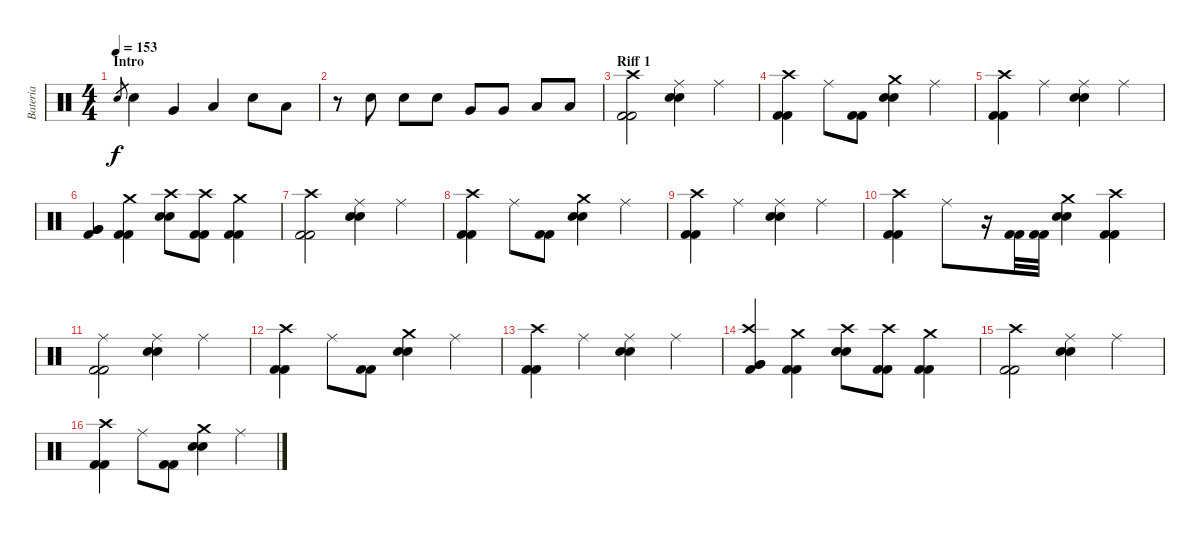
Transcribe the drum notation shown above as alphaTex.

\track ("Bateria" "Bateria") {instrument percussion}
\staff {score}
\articulation defaults
\ts (4 4)
\section ("" "Intro")
\tempo 153
\clef neutral
\ks c "Snare (hit) 2".8{gr dy f} "Snare (hit) 2".4 "Very Low Tom (hit)".4 "Low Floor Tom (hit)".4 "Snare (hit) 2".8 "Low Floor Tom (hit)".8
|
r.8 "Snare (hit) 2".8 "Snare (hit) 2".8 "Snare (hit) 2".8 "Very Low Tom (hit)".8 "Very Low Tom (hit)".8 "Low Floor Tom (hit)".8 "Low Floor Tom (hit)".8 |
\section ("" "Riff 1")
("Crash high (hit)" "Kick (hit) 2" "Kick (hit) 2").2 ("Ride (middle)" "Snare (hit) 2" "Snare (hit) 2").4 "Ride (middle)".4 |
("Crash high (hit)" "Kick (hit) 2" "Kick (hit) 2").4 "Ride (middle)".8 ("Kick (hit) 2" "Kick (hit) 2").8 ("Crash medium (hit)" "Snare (hit) 2" "Snare (hit) 2").4 "Ride (middle)".4 |
("Crash high (hit)" "Kick (hit) 2" "Kick (hit) 2").4 "Ride (middle)".4 ("Ride (middle)" "Snare (hit) 2" "Snare (hit) 2").4 "Ride (middle)".4 |
("Very Low Tom (hit)" "Very Low Tom (hit)" "Kick (hit) 2").4 ("Crash medium (hit)" "Kick (hit) 2" "Kick (hit) 2").4 ("Crash high (hit)" "Snare (hit) 2" "Snare (hit) 2").8 ("Crash high (hit)" "Kick (hit) 2" "Kick (hit) 2").8 ("Crash medium (hit)" "Kick (hit) 2" "Kick (hit) 2").4 |
("Crash high (hit)" "Kick (hit) 2" "Kick (hit) 2").2 ("Ride (middle)" "Snare (hit) 2" "Snare (hit) 2").4 "Ride (middle)".4 |
("Crash high (hit)" "Kick (hit) 2" "Kick (hit) 2").4 "Ride (middle)".8 ("Kick (hit) 2" "Kick (hit) 2").8 ("Crash medium (hit)" "Snare (hit) 2" "Snare (hit) 2").4 "Ride (middle)".4 |
("Crash high (hit)" "Kick (hit) 2" "Kick (hit) 2").4 "Ride (middle)".4 ("Ride (middle)" "Snare (hit) 2" "Snare (hit) 2").4 "Ride (middle)".4 |
("Crash high (hit)" "Kick (hit) 2" "Kick (hit) 2").4 "Ride (middle)".8 r.16 ("Kick (hit) 2" "Kick (hit) 2").32 ("Kick (hit) 2" "Kick (hit) 2").32 ("Crash medium (hit)" "Snare (hit) 2" "Snare (hit) 2").4 ("Crash high (hit)" "Kick (hit) 2" "Kick (hit) 2").4 |
("Ride (middle)" "Kick (hit) 2" "Kick (hit) 2").2 ("Ride (middle)" "Snare (hit) 2" "Snare (hit) 2").4 "Ride (middle)".4 |
("Crash high (hit)" "Kick (hit) 2" "Kick (hit) 2").4 "Ride (middle)".8 ("Kick (hit) 2" "Kick (hit) 2").8 ("Crash medium (hit)" "Snare (hit) 2" "Snare (hit) 2").4 "Ride (middle)".4 |
("Crash high (hit)" "Kick (hit) 2" "Kick (hit) 2").4 "Ride (middle)".4 ("Ride (middle)" "Snare (hit) 2" "Snare (hit) 2").4 "Ride (middle)".4 |
("Crash high (hit)" "Very Low Tom (hit)" "Very Low Tom (hit)" "Kick (hit) 2").4 ("Crash medium (hit)" "Kick (hit) 2" "Kick (hit) 2").4 ("Crash high (hit)" "Snare (hit) 2" "Snare (hit) 2").8 ("Crash high (hit)" "Kick (hit) 2" "Kick (hit) 2").8 ("Crash medium (hit)" "Kick (hit) 2" "Kick (hit) 2").4 |
("Crash high (hit)" "Kick (hit) 2" "Kick (hit) 2").2 ("Ride (middle)" "Snare (hit) 2" "Snare (hit) 2").4 "Ride (middle)".4 |
("Crash high (hit)" "Kick (hit) 2" "Kick (hit) 2").4 "Ride (middle)".8 ("Kick (hit) 2" "Kick (hit) 2").8 ("Crash medium (hit)" "Snare (hit) 2" "Snare (hit) 2").4 "Ride (middle)".4
